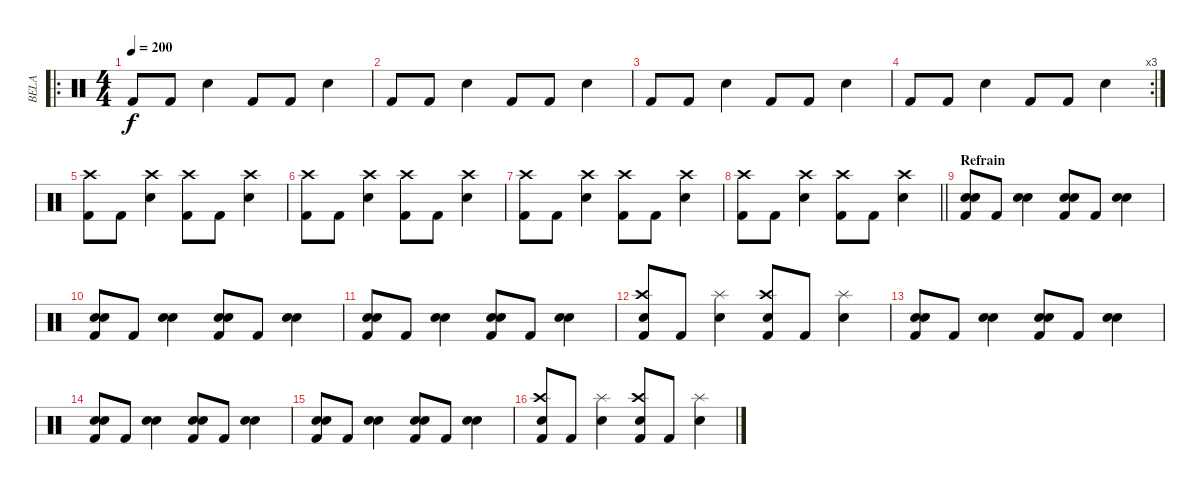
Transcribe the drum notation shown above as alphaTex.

\track ("BELA" "BELA") {instrument percussion}
\staff {score}
\articulation defaults
\ro
\ts (4 4)
\tempo 200
\clef neutral
\ks c "Kick (hit) 2".8{dy f} "Kick (hit) 2".8 "Snare (hit) 2".4 "Kick (hit) 2".8 "Kick (hit) 2".8 "Snare (hit) 2".4
|
"Kick (hit) 2".8 "Kick (hit) 2".8 "Snare (hit) 2".4 "Kick (hit) 2".8 "Kick (hit) 2".8 "Snare (hit) 2".4 |
"Kick (hit) 2".8 "Kick (hit) 2".8 "Snare (hit) 2".4 "Kick (hit) 2".8 "Kick (hit) 2".8 "Snare (hit) 2".4 |
\rc 3 "Kick (hit) 2".8 "Kick (hit) 2".8 "Snare (hit) 2".4 "Kick (hit) 2".8 "Kick (hit) 2".8 "Snare (hit) 2".4
|
("Crash high (hit)" "Kick (hit) 2").8 "Kick (hit) 2".8 ("Crash high (hit)" "Snare (hit) 2").4 ("Crash high (hit)" "Kick (hit) 2").8 "Kick (hit) 2".8 ("Crash high (hit)" "Snare (hit) 2").4 |
("Crash high (hit)" "Kick (hit) 2").8 "Kick (hit) 2".8 ("Crash high (hit)" "Snare (hit) 2").4 ("Crash high (hit)" "Kick (hit) 2").8 "Kick (hit) 2".8 ("Crash high (hit)" "Snare (hit) 2").4 |
("Crash high (hit)" "Kick (hit) 2").8 "Kick (hit) 2".8 ("Crash high (hit)" "Snare (hit) 2").4 ("Crash high (hit)" "Kick (hit) 2").8 "Kick (hit) 2".8 ("Crash high (hit)" "Snare (hit) 2").4 |
\barLineRight lightlight
("Crash high (hit)" "Kick (hit) 2").8 "Kick (hit) 2".8 ("Crash high (hit)" "Snare (hit) 2").4 ("Crash high (hit)" "Kick (hit) 2").8 "Kick (hit) 2".8 ("Crash high (hit)" "Snare (hit) 2").4 |
\section ("" "Refrain")
("Electric Snare (hit)" "Snare (hit) 2" "Kick (hit) 2").8 "Kick (hit) 2".8 ("Electric Snare (hit)" "Snare (hit) 2").4 ("Electric Snare (hit)" "Snare (hit) 2" "Kick (hit) 2").8 "Kick (hit) 2".8 ("Electric Snare (hit)" "Snare (hit) 2").4 |
("Electric Snare (hit)" "Snare (hit) 2" "Kick (hit) 2").8 "Kick (hit) 2".8 ("Electric Snare (hit)" "Snare (hit) 2").4 ("Electric Snare (hit)" "Snare (hit) 2" "Kick (hit) 2").8 "Kick (hit) 2".8 ("Electric Snare (hit)" "Snare (hit) 2").4 |
("Electric Snare (hit)" "Snare (hit) 2" "Kick (hit) 2").8 "Kick (hit) 2".8 ("Electric Snare (hit)" "Snare (hit) 2").4 ("Electric Snare (hit)" "Snare (hit) 2" "Kick (hit) 2").8 "Kick (hit) 2".8 ("Electric Snare (hit)" "Snare (hit) 2").4 |
("Crash high (hit)" "Electric Snare (hit)" "Kick (hit) 2").8 "Kick (hit) 2".8 ("Splash (hit)" "Electric Snare (hit)").4 ("Crash high (hit)" "Electric Snare (hit)" "Kick (hit) 2").8 "Kick (hit) 2".8 ("Splash (hit)" "Electric Snare (hit)").4 |
("Electric Snare (hit)" "Snare (hit) 2" "Kick (hit) 2").8 "Kick (hit) 2".8 ("Electric Snare (hit)" "Snare (hit) 2").4 ("Electric Snare (hit)" "Snare (hit) 2" "Kick (hit) 2").8 "Kick (hit) 2".8 ("Electric Snare (hit)" "Snare (hit) 2").4 |
("Electric Snare (hit)" "Snare (hit) 2" "Kick (hit) 2").8 "Kick (hit) 2".8 ("Electric Snare (hit)" "Snare (hit) 2").4 ("Electric Snare (hit)" "Snare (hit) 2" "Kick (hit) 2").8 "Kick (hit) 2".8 ("Electric Snare (hit)" "Snare (hit) 2").4 |
("Electric Snare (hit)" "Snare (hit) 2" "Kick (hit) 2").8 "Kick (hit) 2".8 ("Electric Snare (hit)" "Snare (hit) 2").4 ("Electric Snare (hit)" "Snare (hit) 2" "Kick (hit) 2").8 "Kick (hit) 2".8 ("Electric Snare (hit)" "Snare (hit) 2").4 |
("Crash high (hit)" "Electric Snare (hit)" "Kick (hit) 2").8 "Kick (hit) 2".8 ("Splash (hit)" "Electric Snare (hit)").4 ("Crash high (hit)" "Electric Snare (hit)" "Kick (hit) 2").8 "Kick (hit) 2".8 ("Splash (hit)" "Electric Snare (hit)").4
